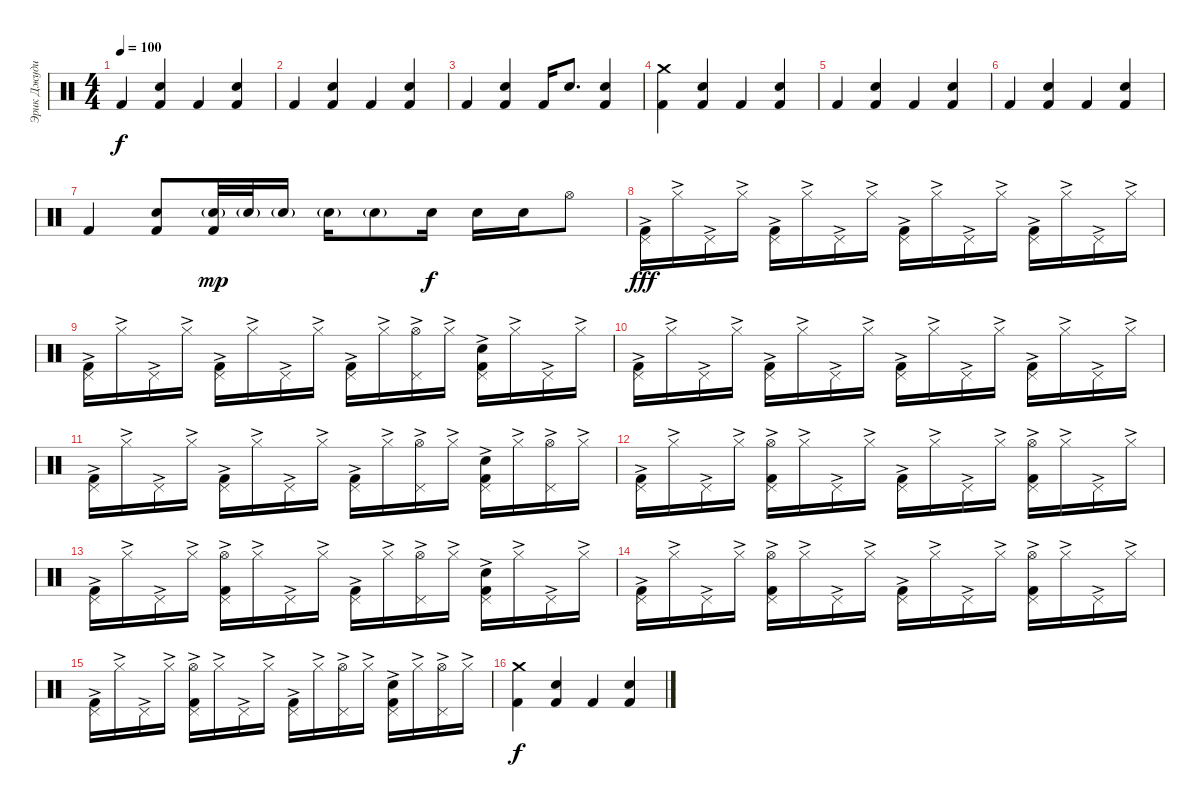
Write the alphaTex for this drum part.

\track ("Эрик Джуди" "Эрик Джуди") {instrument percussion}
\staff {score}
\articulation defaults
\ts (4 4)
\tempo 100
\clef neutral
\ks c "Kick (hit) 2".4{dy f}
("Electric Snare (hit)" "Kick (hit) 2").4 "Kick (hit) 2".4 ("Electric Snare (hit)" "Kick (hit) 2").4 |
"Kick (hit) 2".4 ("Electric Snare (hit)" "Kick (hit) 2").4 "Kick (hit) 2".4 ("Electric Snare (hit)" "Kick (hit) 2").4 |
"Kick (hit) 2".4 ("Electric Snare (hit)" "Kick (hit) 2").4 "Kick (hit) 2".16 "Electric Snare (hit)".8{d} ("Electric Snare (hit)" "Kick (hit) 2").4 |
("Crash medium (hit)" "Kick (hit) 2").4 ("Electric Snare (hit)" "Kick (hit) 2").4 "Kick (hit) 2".4 ("Electric Snare (hit)" "Kick (hit) 2").4 |
"Kick (hit) 2".4 ("Electric Snare (hit)" "Kick (hit) 2").4 "Kick (hit) 2".4 ("Electric Snare (hit)" "Kick (hit) 2").4 |
"Kick (hit) 2".4 ("Electric Snare (hit)" "Kick (hit) 2").4 "Kick (hit) 2".4 ("Electric Snare (hit)" "Kick (hit) 2").4 |
"Kick (hit) 2".4 ("Electric Snare (hit)" "Kick (hit) 2").8 ("Electric Snare (hit)"{g} "Kick (hit) 2").32{dy mp} "Electric Snare (hit)"{g}.32 "Electric Snare (hit)"{g}.16 "Electric Snare (hit)"{g}.16 "Electric Snare (hit)"{g}.8 "Electric Snare (hit)".16{dy f} "Electric Snare (hit)".16 "Electric Snare (hit)".16 "Hi-Hat (open)".8 |
("Pedal Hi-Hat (hit)"{ac} "Kick (hit) 2"{ac}).16{dy fff} "Hi-Hat (closed)"{ac}.16 "Pedal Hi-Hat (hit)"{ac}.16 "Hi-Hat (closed)"{ac}.16 ("Pedal Hi-Hat (hit)"{ac} "Kick (hit) 2"{ac}).16 "Hi-Hat (closed)"{ac}.16 "Pedal Hi-Hat (hit)"{ac}.16 "Hi-Hat (closed)"{ac}.16 ("Pedal Hi-Hat (hit)"{ac} "Kick (hit) 2"{ac}).16 "Hi-Hat (closed)"{ac}.16 "Pedal Hi-Hat (hit)"{ac}.16 "Hi-Hat (closed)"{ac}.16 ("Pedal Hi-Hat (hit)"{ac} "Kick (hit) 2"{ac}).16 "Hi-Hat (closed)"{ac}.16 "Pedal Hi-Hat (hit)"{ac}.16 "Hi-Hat (closed)"{ac}.16 |
("Pedal Hi-Hat (hit)"{ac} "Kick (hit) 2"{ac}).16 "Hi-Hat (closed)"{ac}.16 "Pedal Hi-Hat (hit)"{ac}.16 "Hi-Hat (closed)"{ac}.16 ("Pedal Hi-Hat (hit)"{ac} "Kick (hit) 2"{ac}).16 "Hi-Hat (closed)"{ac}.16 "Pedal Hi-Hat (hit)"{ac}.16 "Hi-Hat (closed)"{ac}.16 ("Pedal Hi-Hat (hit)"{ac} "Kick (hit) 2"{ac}).16 "Hi-Hat (closed)"{ac}.16 ("Pedal Hi-Hat (hit)"{ac} "Hi-Hat (open)"{ac}).16 "Hi-Hat (closed)"{ac}.16 ("Pedal Hi-Hat (hit)"{ac} "Electric Snare (hit)"{ac} "Kick (hit) 2"{ac}).16 "Hi-Hat (closed)"{ac}.16 "Pedal Hi-Hat (hit)"{ac}.16 "Hi-Hat (closed)"{ac}.16 |
("Pedal Hi-Hat (hit)"{ac} "Kick (hit) 2"{ac}).16 "Hi-Hat (closed)"{ac}.16 "Pedal Hi-Hat (hit)"{ac}.16 "Hi-Hat (closed)"{ac}.16 ("Pedal Hi-Hat (hit)"{ac} "Kick (hit) 2"{ac}).16 "Hi-Hat (closed)"{ac}.16 "Pedal Hi-Hat (hit)"{ac}.16 "Hi-Hat (closed)"{ac}.16 ("Pedal Hi-Hat (hit)"{ac} "Kick (hit) 2"{ac}).16 "Hi-Hat (closed)"{ac}.16 "Pedal Hi-Hat (hit)"{ac}.16 "Hi-Hat (closed)"{ac}.16 ("Pedal Hi-Hat (hit)"{ac} "Kick (hit) 2"{ac}).16 "Hi-Hat (closed)"{ac}.16 "Pedal Hi-Hat (hit)"{ac}.16 "Hi-Hat (closed)"{ac}.16 |
("Pedal Hi-Hat (hit)"{ac} "Kick (hit) 2"{ac}).16 "Hi-Hat (closed)"{ac}.16 "Pedal Hi-Hat (hit)"{ac}.16 "Hi-Hat (closed)"{ac}.16 ("Pedal Hi-Hat (hit)"{ac} "Kick (hit) 2"{ac}).16 "Hi-Hat (closed)"{ac}.16 "Pedal Hi-Hat (hit)"{ac}.16 "Hi-Hat (closed)"{ac}.16 ("Pedal Hi-Hat (hit)"{ac} "Kick (hit) 2"{ac}).16 "Hi-Hat (closed)"{ac}.16 ("Pedal Hi-Hat (hit)"{ac} "Hi-Hat (open)"{ac}).16 "Hi-Hat (closed)"{ac}.16 ("Pedal Hi-Hat (hit)"{ac} "Electric Snare (hit)"{ac} "Kick (hit) 2"{ac}).16 "Hi-Hat (closed)"{ac}.16 ("Pedal Hi-Hat (hit)"{ac} "Hi-Hat (open)"{ac}).16 "Hi-Hat (closed)"{ac}.16 |
("Pedal Hi-Hat (hit)"{ac} "Kick (hit) 2"{ac}).16 "Hi-Hat (closed)"{ac}.16 "Pedal Hi-Hat (hit)"{ac}.16 "Hi-Hat (closed)"{ac}.16 ("Pedal Hi-Hat (hit)"{ac} "Hi-Hat (open)"{ac} "Kick (hit) 2"{ac}).16 "Hi-Hat (closed)"{ac}.16 "Pedal Hi-Hat (hit)"{ac}.16 "Hi-Hat (closed)"{ac}.16 ("Pedal Hi-Hat (hit)"{ac} "Kick (hit) 2"{ac}).16 "Hi-Hat (closed)"{ac}.16 "Pedal Hi-Hat (hit)"{ac}.16 "Hi-Hat (closed)"{ac}.16 ("Pedal Hi-Hat (hit)"{ac} "Hi-Hat (open)"{ac} "Kick (hit) 2"{ac}).16 "Hi-Hat (closed)"{ac}.16 "Pedal Hi-Hat (hit)"{ac}.16 "Hi-Hat (closed)"{ac}.16 |
("Pedal Hi-Hat (hit)"{ac} "Kick (hit) 2"{ac}).16 "Hi-Hat (closed)"{ac}.16 "Pedal Hi-Hat (hit)"{ac}.16 "Hi-Hat (closed)"{ac}.16 ("Pedal Hi-Hat (hit)"{ac} "Hi-Hat (open)"{ac} "Kick (hit) 2"{ac}).16 "Hi-Hat (closed)"{ac}.16 "Pedal Hi-Hat (hit)"{ac}.16 "Hi-Hat (closed)"{ac}.16 ("Pedal Hi-Hat (hit)"{ac} "Kick (hit) 2"{ac}).16 "Hi-Hat (closed)"{ac}.16 ("Pedal Hi-Hat (hit)"{ac} "Hi-Hat (open)"{ac}).16 "Hi-Hat (closed)"{ac}.16 ("Pedal Hi-Hat (hit)"{ac} "Electric Snare (hit)"{ac} "Kick (hit) 2"{ac}).16 "Hi-Hat (closed)"{ac}.16 "Pedal Hi-Hat (hit)"{ac}.16 "Hi-Hat (closed)"{ac}.16 |
("Pedal Hi-Hat (hit)"{ac} "Kick (hit) 2"{ac}).16 "Hi-Hat (closed)"{ac}.16 "Pedal Hi-Hat (hit)"{ac}.16 "Hi-Hat (closed)"{ac}.16 ("Pedal Hi-Hat (hit)"{ac} "Hi-Hat (open)"{ac} "Kick (hit) 2"{ac}).16 "Hi-Hat (closed)"{ac}.16 "Pedal Hi-Hat (hit)"{ac}.16 "Hi-Hat (closed)"{ac}.16 ("Pedal Hi-Hat (hit)"{ac} "Kick (hit) 2"{ac}).16 "Hi-Hat (closed)"{ac}.16 "Pedal Hi-Hat (hit)"{ac}.16 "Hi-Hat (closed)"{ac}.16 ("Pedal Hi-Hat (hit)"{ac} "Hi-Hat (open)"{ac} "Kick (hit) 2"{ac}).16 "Hi-Hat (closed)"{ac}.16 "Pedal Hi-Hat (hit)"{ac}.16 "Hi-Hat (closed)"{ac}.16 |
("Pedal Hi-Hat (hit)"{ac} "Kick (hit) 2"{ac}).16 "Hi-Hat (closed)"{ac}.16 "Pedal Hi-Hat (hit)"{ac}.16 "Hi-Hat (closed)"{ac}.16 ("Pedal Hi-Hat (hit)"{ac} "Hi-Hat (open)"{ac} "Kick (hit) 2"{ac}).16 "Hi-Hat (closed)"{ac}.16 "Pedal Hi-Hat (hit)"{ac}.16 "Hi-Hat (closed)"{ac}.16 ("Pedal Hi-Hat (hit)"{ac} "Kick (hit) 2"{ac}).16 "Hi-Hat (closed)"{ac}.16 ("Pedal Hi-Hat (hit)"{ac} "Hi-Hat (open)"{ac}).16 "Hi-Hat (closed)"{ac}.16 ("Pedal Hi-Hat (hit)"{ac} "Electric Snare (hit)"{ac} "Kick (hit) 2"{ac}).16 "Hi-Hat (closed)"{ac}.16 ("Pedal Hi-Hat (hit)"{ac} "Hi-Hat (open)"{ac}).16 "Hi-Hat (closed)"{ac}.16 |
("Crash medium (hit)" "Kick (hit) 2").4{dy f} ("Electric Snare (hit)" "Kick (hit) 2").4 "Kick (hit) 2".4 ("Electric Snare (hit)" "Kick (hit) 2").4
